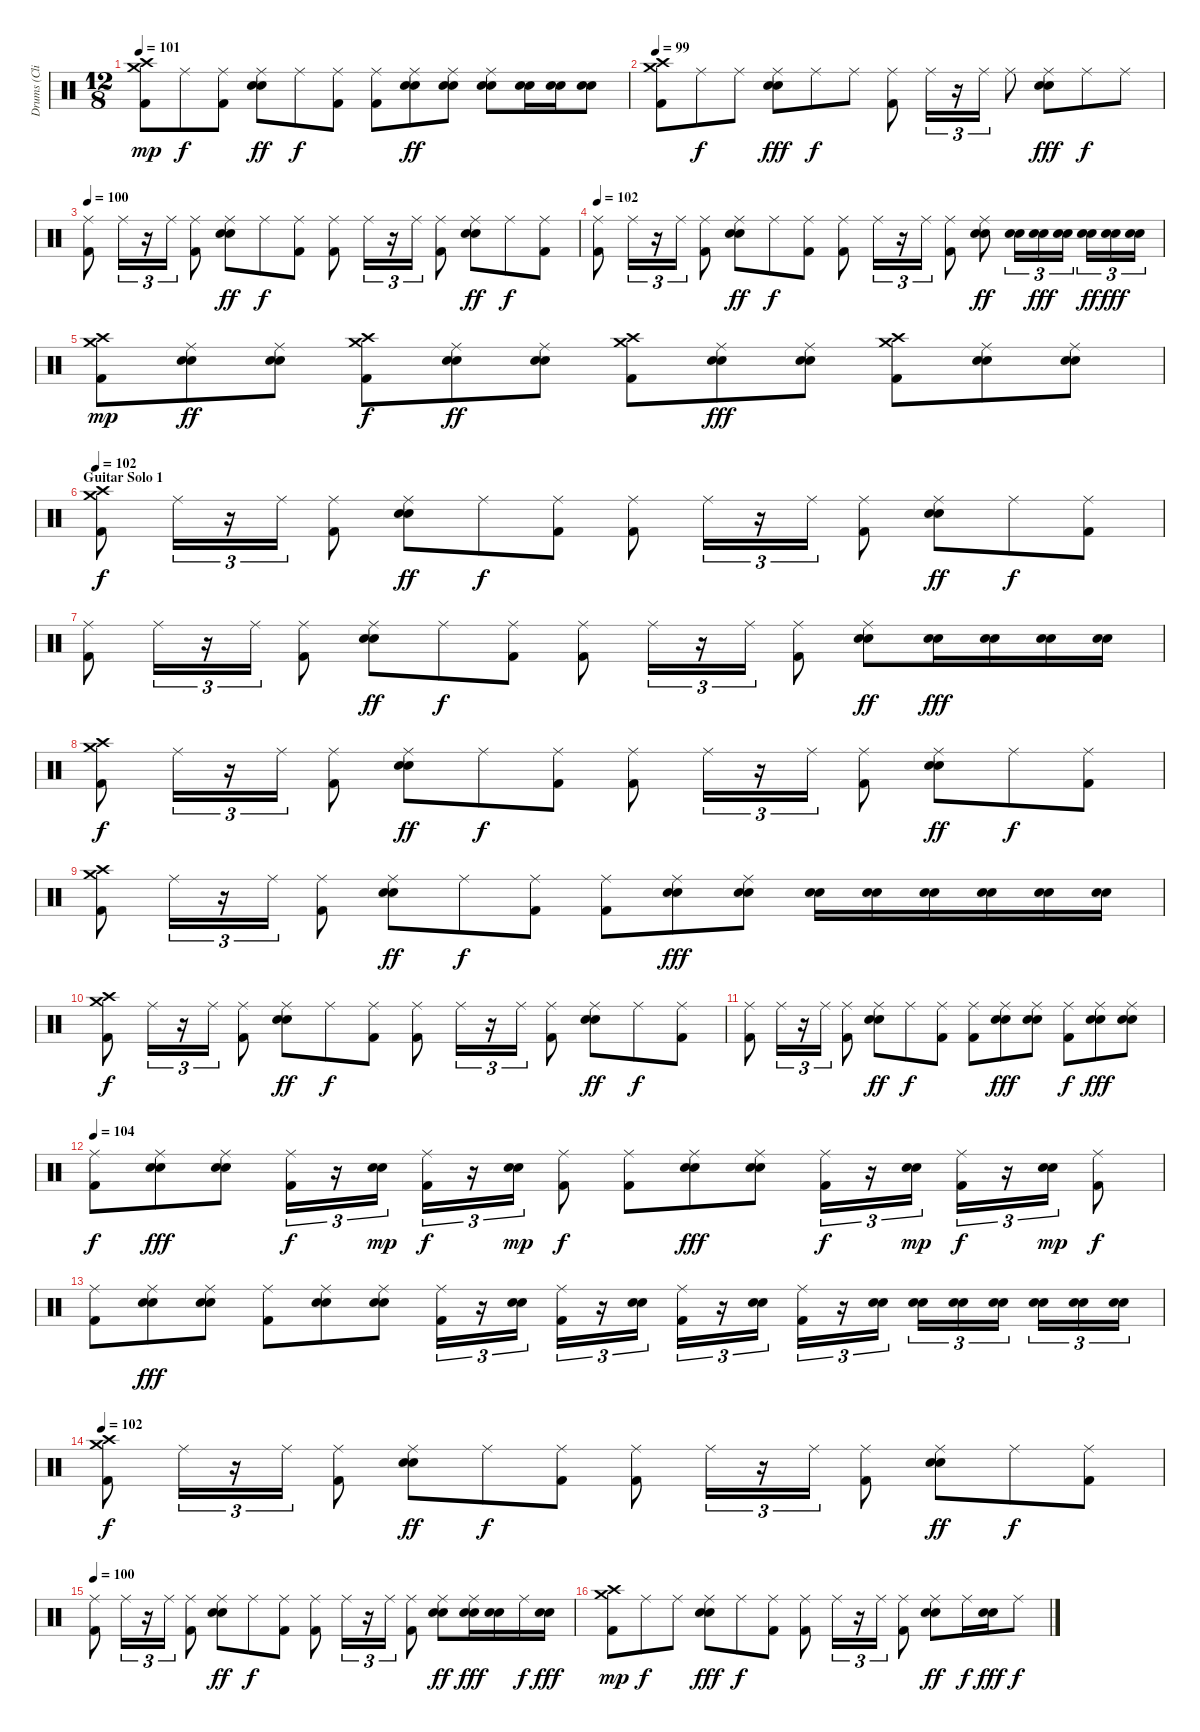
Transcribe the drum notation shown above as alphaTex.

\track ("Drums (Clifford)" "Drums (Cli") {instrument percussion}
\staff {score}
\articulation defaults
\ts (12 8)
\tempo 101
\clef neutral
\ks c
("Crash medium (hit)" "Crash high (hit)" "Kick (hit) 2").8{dy mp} "Ride (middle)".8{dy f} ("Ride (middle)" "Kick (hit) 2").8 ("Ride (middle)" "Snare (hit) 2" "Electric Snare (hit)").8{dy ff} "Ride (middle)".8{dy f} ("Ride (middle)" "Kick (hit) 2").8 ("Ride (middle)" "Kick (hit) 2").8 ("Ride (middle)" "Snare (hit) 2" "Electric Snare (hit)").8{dy ff} ("Ride (middle)" "Snare (hit) 2" "Electric Snare (hit)").8 ("Ride (middle)" "Snare (hit) 2" "Electric Snare (hit)").8 ("Snare (hit) 2" "Electric Snare (hit)").16 ("Snare (hit) 2" "Electric Snare (hit)").16 ("Snare (hit) 2" "Electric Snare (hit)").8 |
\tempo 99
("Crash medium (hit)" "Crash high (hit)" "Kick (hit) 2").8 "Ride (middle)".8{dy f} "Ride (middle)".8 ("Ride (middle)" "Snare (hit) 2" "Electric Snare (hit)").8{dy fff} "Ride (middle)".8{dy f} "Ride (middle)".8 ("Ride (middle)" "Kick (hit) 2").8 "Ride (middle)".16{tu (3 2)} r.16{tu (3 2)} "Ride (middle)".16{tu (3 2)} "Ride (middle)".8 ("Ride (middle)" "Snare (hit) 2" "Electric Snare (hit)").8{dy fff} "Ride (middle)".8{dy f} "Ride (middle)".8 |
\tempo 100
("Ride (middle)" "Kick (hit) 2").8 "Ride (middle)".16{tu (3 2)} r.16{tu (3 2)} "Ride (middle)".16{tu (3 2)} ("Ride (middle)" "Kick (hit) 2").8 ("Ride (middle)" "Snare (hit) 2" "Electric Snare (hit)").8{dy ff} "Ride (middle)".8{dy f} ("Ride (middle)" "Kick (hit) 2").8 ("Ride (middle)" "Kick (hit) 2").8 "Ride (middle)".16{tu (3 2)} r.16{tu (3 2)} "Ride (middle)".16{tu (3 2)} ("Ride (middle)" "Kick (hit) 2").8 ("Ride (middle)" "Snare (hit) 2" "Electric Snare (hit)").8{dy ff} "Ride (middle)".8{dy f} ("Ride (middle)" "Kick (hit) 2").8 |
\tempo 102
("Ride (middle)" "Kick (hit) 2").8 "Ride (middle)".16{tu (3 2)} r.16{tu (3 2)} "Ride (middle)".16{tu (3 2)} ("Ride (middle)" "Kick (hit) 2").8 ("Ride (middle)" "Snare (hit) 2" "Electric Snare (hit)").8{dy ff} "Ride (middle)".8{dy f} ("Ride (middle)" "Kick (hit) 2").8 ("Ride (middle)" "Kick (hit) 2").8 "Ride (middle)".16{tu (3 2)} r.16{tu (3 2)} "Ride (middle)".16{tu (3 2)} ("Ride (middle)" "Kick (hit) 2").8 ("Ride (middle)" "Snare (hit) 2" "Electric Snare (hit)").8{dy ff} ("Snare (hit) 2" "Electric Snare (hit)").16{tu (3 2)} ("Snare (hit) 2" "Electric Snare (hit)").16{tu (3 2) dy fff} ("Snare (hit) 2" "Electric Snare (hit)").16{tu (3 2)} ("Snare (hit) 2" "Electric Snare (hit)").16{tu (3 2) dy ff} ("Snare (hit) 2" "Electric Snare (hit)").16{tu (3 2) dy fff} ("Snare (hit) 2" "Electric Snare (hit)").16{tu (3 2)} |
("Crash medium (hit)" "Crash high (hit)" "Kick (hit) 2").8{dy mp} ("Ride (middle)" "Snare (hit) 2" "Electric Snare (hit)").8{dy ff} ("Ride (middle)" "Snare (hit) 2" "Electric Snare (hit)").8 ("Crash medium (hit)" "Crash high (hit)" "Kick (hit) 2").8{dy f} ("Ride (middle)" "Snare (hit) 2" "Electric Snare (hit)").8{dy ff} ("Ride (middle)" "Snare (hit) 2" "Electric Snare (hit)").8 ("Crash medium (hit)" "Crash high (hit)" "Kick (hit) 2").8 ("Ride (middle)" "Snare (hit) 2" "Electric Snare (hit)").8{dy fff} ("Ride (middle)" "Snare (hit) 2" "Electric Snare (hit)").8 ("Crash medium (hit)" "Crash high (hit)" "Kick (hit) 2").8 ("Ride (middle)" "Snare (hit) 2" "Electric Snare (hit)").8 ("Ride (middle)" "Snare (hit) 2" "Electric Snare (hit)").8 |
\section ("" "Guitar Solo 1")
\tempo 102
("Crash medium (hit)" "Crash high (hit)" "Kick (hit) 2").8{dy f} "Ride (middle)".16{tu (3 2)} r.16{tu (3 2)} "Ride (middle)".16{tu (3 2)} ("Ride (middle)" "Kick (hit) 2").8 ("Ride (middle)" "Snare (hit) 2" "Electric Snare (hit)").8{dy ff} "Ride (middle)".8{dy f} ("Ride (middle)" "Kick (hit) 2").8 ("Ride (middle)" "Kick (hit) 2").8 "Ride (middle)".16{tu (3 2)} r.16{tu (3 2)} "Ride (middle)".16{tu (3 2)} ("Ride (middle)" "Kick (hit) 2").8 ("Ride (middle)" "Snare (hit) 2" "Electric Snare (hit)").8{dy ff} "Ride (middle)".8{dy f} ("Ride (middle)" "Kick (hit) 2").8 |
("Ride (middle)" "Kick (hit) 2").8 "Ride (middle)".16{tu (3 2)} r.16{tu (3 2)} "Ride (middle)".16{tu (3 2)} ("Ride (middle)" "Kick (hit) 2").8 ("Ride (middle)" "Snare (hit) 2" "Electric Snare (hit)").8{dy ff} "Ride (middle)".8{dy f} ("Ride (middle)" "Kick (hit) 2").8 ("Ride (middle)" "Kick (hit) 2").8 "Ride (middle)".16{tu (3 2)} r.16{tu (3 2)} "Ride (middle)".16{tu (3 2)} ("Ride (middle)" "Kick (hit) 2").8 ("Ride (middle)" "Snare (hit) 2" "Electric Snare (hit)").8{dy ff} ("Snare (hit) 2" "Electric Snare (hit)").16{dy fff} ("Snare (hit) 2" "Electric Snare (hit)").16 ("Snare (hit) 2" "Electric Snare (hit)").16 ("Snare (hit) 2" "Electric Snare (hit)").16 |
("Crash medium (hit)" "Crash high (hit)" "Kick (hit) 2").8{dy f} "Ride (middle)".16{tu (3 2)} r.16{tu (3 2)} "Ride (middle)".16{tu (3 2)} ("Ride (middle)" "Kick (hit) 2").8 ("Ride (middle)" "Snare (hit) 2" "Electric Snare (hit)").8{dy ff} "Ride (middle)".8{dy f} ("Ride (middle)" "Kick (hit) 2").8 ("Ride (middle)" "Kick (hit) 2").8 "Ride (middle)".16{tu (3 2)} r.16{tu (3 2)} "Ride (middle)".16{tu (3 2)} ("Ride (middle)" "Kick (hit) 2").8 ("Ride (middle)" "Snare (hit) 2" "Electric Snare (hit)").8{dy ff} "Ride (middle)".8{dy f} ("Ride (middle)" "Kick (hit) 2").8 |
("Crash medium (hit)" "Crash high (hit)" "Kick (hit) 2").8 "Ride (middle)".16{tu (3 2)} r.16{tu (3 2)} "Ride (middle)".16{tu (3 2)} ("Ride (middle)" "Kick (hit) 2").8 ("Ride (middle)" "Snare (hit) 2" "Electric Snare (hit)").8{dy ff} "Ride (middle)".8{dy f} ("Ride (middle)" "Kick (hit) 2").8 ("Ride (middle)" "Kick (hit) 2").8 ("Ride (middle)" "Snare (hit) 2" "Electric Snare (hit)").8{dy fff} ("Ride (middle)" "Snare (hit) 2" "Electric Snare (hit)").8 ("Snare (hit) 2" "Electric Snare (hit)").16 ("Snare (hit) 2" "Electric Snare (hit)").16 ("Snare (hit) 2" "Electric Snare (hit)").16 ("Snare (hit) 2" "Electric Snare (hit)").16 ("Snare (hit) 2" "Electric Snare (hit)").16 ("Snare (hit) 2" "Electric Snare (hit)").16 |
("Crash medium (hit)" "Crash high (hit)" "Kick (hit) 2").8{dy f} "Ride (middle)".16{tu (3 2)} r.16{tu (3 2)} "Ride (middle)".16{tu (3 2)} ("Ride (middle)" "Kick (hit) 2").8 ("Ride (middle)" "Snare (hit) 2" "Electric Snare (hit)").8{dy ff} "Ride (middle)".8{dy f} ("Ride (middle)" "Kick (hit) 2").8 ("Ride (middle)" "Kick (hit) 2").8 "Ride (middle)".16{tu (3 2)} r.16{tu (3 2)} "Ride (middle)".16{tu (3 2)} ("Ride (middle)" "Kick (hit) 2").8 ("Ride (middle)" "Snare (hit) 2" "Electric Snare (hit)").8{dy ff} "Ride (middle)".8{dy f} ("Ride (middle)" "Kick (hit) 2").8 |
("Ride (middle)" "Kick (hit) 2").8 "Ride (middle)".16{tu (3 2)} r.16{tu (3 2)} "Ride (middle)".16{tu (3 2)} ("Ride (middle)" "Kick (hit) 2").8 ("Ride (middle)" "Snare (hit) 2" "Electric Snare (hit)").8{dy ff} "Ride (middle)".8{dy f} ("Ride (middle)" "Kick (hit) 2").8 ("Ride (middle)" "Kick (hit) 2").8 ("Ride (middle)" "Snare (hit) 2" "Electric Snare (hit)").8{dy fff} ("Ride (middle)" "Snare (hit) 2" "Electric Snare (hit)").8 ("Ride (middle)" "Kick (hit) 2").8{dy f} ("Ride (middle)" "Snare (hit) 2" "Electric Snare (hit)").8{dy fff} ("Ride (middle)" "Snare (hit) 2" "Electric Snare (hit)").8 |
\tempo 104
("Ride (middle)" "Kick (hit) 2").8{dy f volume 16} ("Ride (middle)" "Snare (hit) 2" "Electric Snare (hit)").8{dy fff} ("Ride (middle)" "Snare (hit) 2" "Electric Snare (hit)").8 ("Ride (middle)" "Kick (hit) 2").16{tu (3 2) dy f} r.16{tu (3 2)} ("Snare (hit) 2" "Electric Snare (hit)").16{tu (3 2) dy mp} ("Ride (middle)" "Kick (hit) 2").16{tu (3 2) dy f} r.16{tu (3 2)} ("Snare (hit) 2" "Electric Snare (hit)").16{tu (3 2) dy mp} ("Ride (middle)" "Kick (hit) 2").8{dy f} ("Ride (middle)" "Kick (hit) 2").8 ("Ride (middle)" "Snare (hit) 2" "Electric Snare (hit)").8{dy fff} ("Ride (middle)" "Snare (hit) 2" "Electric Snare (hit)").8 ("Ride (middle)" "Kick (hit) 2").16{tu (3 2) dy f} r.16{tu (3 2)} ("Snare (hit) 2" "Electric Snare (hit)").16{tu (3 2) dy mp} ("Ride (middle)" "Kick (hit) 2").16{tu (3 2) dy f} r.16{tu (3 2)} ("Snare (hit) 2" "Electric Snare (hit)").16{tu (3 2) dy mp} ("Ride (middle)" "Kick (hit) 2").8{dy f} |
("Ride (middle)" "Kick (hit) 2").8 ("Ride (middle)" "Snare (hit) 2" "Electric Snare (hit)").8{dy fff} ("Ride (middle)" "Snare (hit) 2" "Electric Snare (hit)").8 ("Ride (middle)" "Kick (hit) 2").8 ("Ride (middle)" "Snare (hit) 2" "Electric Snare (hit)").8 ("Ride (middle)" "Snare (hit) 2" "Electric Snare (hit)").8 ("Ride (middle)" "Kick (hit) 2").16{tu (3 2)} r.16{tu (3 2)} ("Snare (hit) 2" "Electric Snare (hit)").16{tu (3 2)} ("Ride (middle)" "Kick (hit) 2").16{tu (3 2)} r.16{tu (3 2)} ("Snare (hit) 2" "Electric Snare (hit)").16{tu (3 2)} ("Ride (middle)" "Kick (hit) 2").16{tu (3 2)} r.16{tu (3 2)} ("Snare (hit) 2" "Electric Snare (hit)").16{tu (3 2)} ("Ride (middle)" "Kick (hit) 2").16{tu (3 2)} r.16{tu (3 2)} ("Snare (hit) 2" "Electric Snare (hit)").16{tu (3 2)} ("Snare (hit) 2" "Electric Snare (hit)").16{tu (3 2)} ("Snare (hit) 2" "Electric Snare (hit)").16{tu (3 2)} ("Snare (hit) 2" "Electric Snare (hit)").16{tu (3 2)} ("Snare (hit) 2" "Electric Snare (hit)").16{tu (3 2)} ("Snare (hit) 2" "Electric Snare (hit)").16{tu (3 2)} ("Snare (hit) 2" "Electric Snare (hit)").16{tu (3 2)} |
\tempo 102
("Crash medium (hit)" "Crash high (hit)" "Kick (hit) 2").8{dy f volume 14} "Ride (middle)".16{tu (3 2)} r.16{tu (3 2)} "Ride (middle)".16{tu (3 2)} ("Ride (middle)" "Kick (hit) 2").8 ("Ride (middle)" "Snare (hit) 2" "Electric Snare (hit)").8{dy ff} "Ride (middle)".8{dy f} ("Ride (middle)" "Kick (hit) 2").8 ("Ride (middle)" "Kick (hit) 2").8 "Ride (middle)".16{tu (3 2)} r.16{tu (3 2)} "Ride (middle)".16{tu (3 2)} ("Ride (middle)" "Kick (hit) 2").8 ("Ride (middle)" "Snare (hit) 2" "Electric Snare (hit)").8{dy ff} "Ride (middle)".8{dy f} ("Ride (middle)" "Kick (hit) 2").8 |
\tempo 100
("Ride (middle)" "Kick (hit) 2").8 "Ride (middle)".16{tu (3 2)} r.16{tu (3 2)} "Ride (middle)".16{tu (3 2)} ("Ride (middle)" "Kick (hit) 2").8 ("Ride (middle)" "Snare (hit) 2" "Electric Snare (hit)").8{dy ff} "Ride (middle)".8{dy f} ("Ride (middle)" "Kick (hit) 2").8 ("Ride (middle)" "Kick (hit) 2").8 "Ride (middle)".16{tu (3 2)} r.16{tu (3 2)} "Ride (middle)".16{tu (3 2)} ("Ride (middle)" "Kick (hit) 2").8 ("Ride (middle)" "Snare (hit) 2" "Electric Snare (hit)").8{dy ff} ("Ride (middle)" "Snare (hit) 2" "Electric Snare (hit)").16{dy fff} ("Snare (hit) 2" "Electric Snare (hit)").16 "Ride (middle)".16{dy f} ("Snare (hit) 2" "Electric Snare (hit)").16{dy fff} |
("Crash medium (hit)" "Crash high (hit)" "Kick (hit) 2").8{dy mp} "Ride (middle)".8{dy f} "Ride (middle)".8 ("Ride (middle)" "Snare (hit) 2" "Electric Snare (hit)").8{dy fff} "Ride (middle)".8{dy f} ("Ride (middle)" "Kick (hit) 2").8 ("Ride (middle)" "Kick (hit) 2").8 "Ride (middle)".16{tu (3 2)} r.16{tu (3 2)} "Ride (middle)".16{tu (3 2)} ("Ride (middle)" "Kick (hit) 2").8 ("Ride (middle)" "Snare (hit) 2" "Electric Snare (hit)").8{dy ff} "Ride (middle)".16{dy f} ("Snare (hit) 2" "Electric Snare (hit)").16{dy fff} "Ride (middle)".8{dy f}
